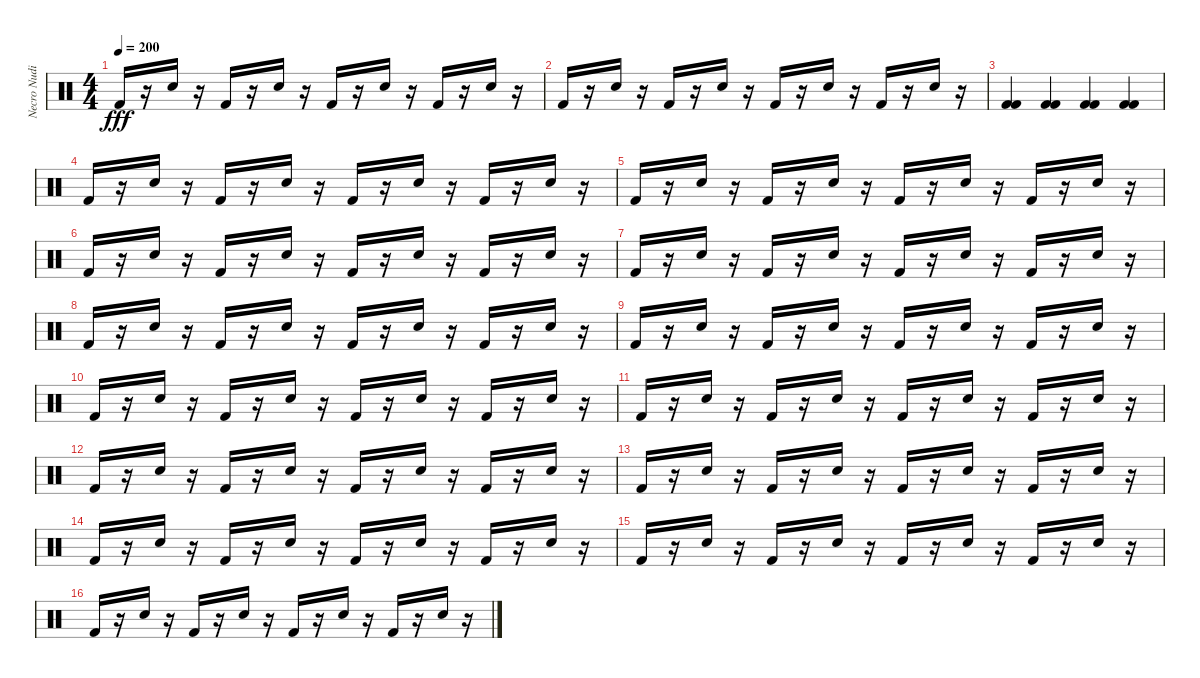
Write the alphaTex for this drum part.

\track ("Necro Nudist" "Necro Nudi") {instrument percussion}
\staff {score}
\articulation defaults
\ts (4 4)
\tempo 200
\clef neutral
\ks c "Kick (hit) 2".16{dy fff}
r.16 "Snare (hit) 2".16 r.16 "Kick (hit) 2".16 r.16 "Snare (hit) 2".16 r.16 "Kick (hit) 2".16 r.16 "Snare (hit) 2".16 r.16 "Kick (hit) 2".16 r.16 "Snare (hit) 2".16 r.16 |
"Kick (hit) 2".16 r.16 "Snare (hit) 2".16 r.16 "Kick (hit) 2".16 r.16 "Snare (hit) 2".16 r.16 "Kick (hit) 2".16 r.16 "Snare (hit) 2".16 r.16 "Kick (hit) 2".16 r.16 "Snare (hit) 2".16 r.16 |
("Kick (hit) 2" "Kick (hit) 2").4 ("Kick (hit) 2" "Kick (hit) 2").4 ("Kick (hit) 2" "Kick (hit) 2").4 ("Kick (hit) 2" "Kick (hit) 2").4 |
"Kick (hit) 2".16 r.16 "Snare (hit) 2".16 r.16 "Kick (hit) 2".16 r.16 "Snare (hit) 2".16 r.16 "Kick (hit) 2".16 r.16 "Snare (hit) 2".16 r.16 "Kick (hit) 2".16 r.16 "Snare (hit) 2".16 r.16 |
"Kick (hit) 2".16 r.16 "Snare (hit) 2".16 r.16 "Kick (hit) 2".16 r.16 "Snare (hit) 2".16 r.16 "Kick (hit) 2".16 r.16 "Snare (hit) 2".16 r.16 "Kick (hit) 2".16 r.16 "Snare (hit) 2".16 r.16 |
"Kick (hit) 2".16 r.16 "Snare (hit) 2".16 r.16 "Kick (hit) 2".16 r.16 "Snare (hit) 2".16 r.16 "Kick (hit) 2".16 r.16 "Snare (hit) 2".16 r.16 "Kick (hit) 2".16 r.16 "Snare (hit) 2".16 r.16 |
"Kick (hit) 2".16 r.16 "Snare (hit) 2".16 r.16 "Kick (hit) 2".16 r.16 "Snare (hit) 2".16 r.16 "Kick (hit) 2".16 r.16 "Snare (hit) 2".16 r.16 "Kick (hit) 2".16 r.16 "Snare (hit) 2".16 r.16 |
"Kick (hit) 2".16 r.16 "Snare (hit) 2".16 r.16 "Kick (hit) 2".16 r.16 "Snare (hit) 2".16 r.16 "Kick (hit) 2".16 r.16 "Snare (hit) 2".16 r.16 "Kick (hit) 2".16 r.16 "Snare (hit) 2".16 r.16 |
"Kick (hit) 2".16 r.16 "Snare (hit) 2".16 r.16 "Kick (hit) 2".16 r.16 "Snare (hit) 2".16 r.16 "Kick (hit) 2".16 r.16 "Snare (hit) 2".16 r.16 "Kick (hit) 2".16 r.16 "Snare (hit) 2".16 r.16 |
"Kick (hit) 2".16 r.16 "Snare (hit) 2".16 r.16 "Kick (hit) 2".16 r.16 "Snare (hit) 2".16 r.16 "Kick (hit) 2".16 r.16 "Snare (hit) 2".16 r.16 "Kick (hit) 2".16 r.16 "Snare (hit) 2".16 r.16 |
"Kick (hit) 2".16 r.16 "Snare (hit) 2".16 r.16 "Kick (hit) 2".16 r.16 "Snare (hit) 2".16 r.16 "Kick (hit) 2".16 r.16 "Snare (hit) 2".16 r.16 "Kick (hit) 2".16 r.16 "Snare (hit) 2".16 r.16 |
"Kick (hit) 2".16 r.16 "Snare (hit) 2".16 r.16 "Kick (hit) 2".16 r.16 "Snare (hit) 2".16 r.16 "Kick (hit) 2".16 r.16 "Snare (hit) 2".16 r.16 "Kick (hit) 2".16 r.16 "Snare (hit) 2".16 r.16 |
"Kick (hit) 2".16 r.16 "Snare (hit) 2".16 r.16 "Kick (hit) 2".16 r.16 "Snare (hit) 2".16 r.16 "Kick (hit) 2".16 r.16 "Snare (hit) 2".16 r.16 "Kick (hit) 2".16 r.16 "Snare (hit) 2".16 r.16 |
"Kick (hit) 2".16 r.16 "Snare (hit) 2".16 r.16 "Kick (hit) 2".16 r.16 "Snare (hit) 2".16 r.16 "Kick (hit) 2".16 r.16 "Snare (hit) 2".16 r.16 "Kick (hit) 2".16 r.16 "Snare (hit) 2".16 r.16 |
"Kick (hit) 2".16 r.16 "Snare (hit) 2".16 r.16 "Kick (hit) 2".16 r.16 "Snare (hit) 2".16 r.16 "Kick (hit) 2".16 r.16 "Snare (hit) 2".16 r.16 "Kick (hit) 2".16 r.16 "Snare (hit) 2".16 r.16 |
"Kick (hit) 2".16 r.16 "Snare (hit) 2".16 r.16 "Kick (hit) 2".16 r.16 "Snare (hit) 2".16 r.16 "Kick (hit) 2".16 r.16 "Snare (hit) 2".16 r.16 "Kick (hit) 2".16 r.16 "Snare (hit) 2".16 r.16
